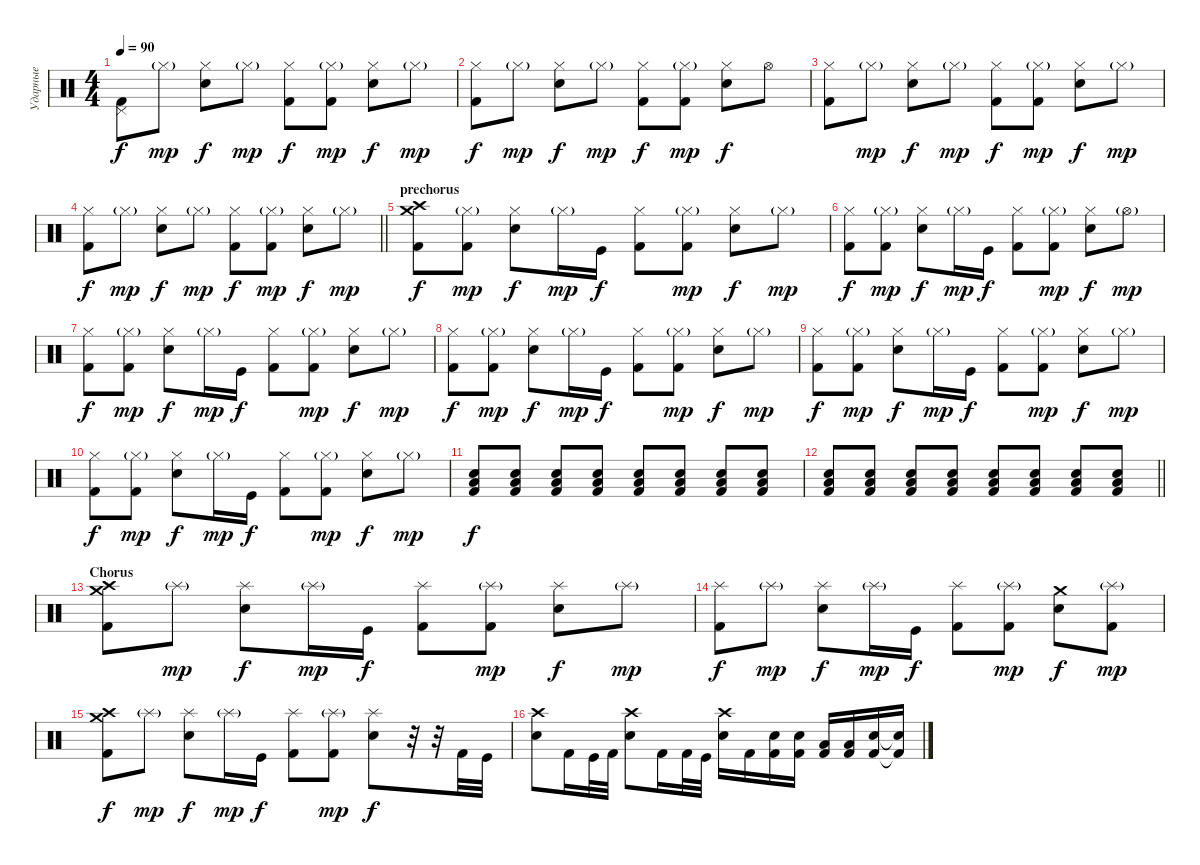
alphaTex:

\track ("Ударные" "Ударные") {instrument percussion}
\staff {score}
\articulation defaults
\ts (4 4)
\tempo 90
\clef neutral
\ks c
("Pedal Hi-Hat (hit)" "Kick (hit) 2").8{dy f} "Hi-Hat (closed)"{g}.8{dy mp} ("Hi-Hat (closed)" "Electric Snare (hit)").8{dy f} "Hi-Hat (closed)"{g}.8{dy mp} ("Hi-Hat (closed)" "Kick (hit) 2").8{dy f} ("Hi-Hat (closed)"{g} "Kick (hit) 2").8{dy mp} ("Hi-Hat (closed)" "Electric Snare (hit)").8{dy f} "Hi-Hat (closed)"{g}.8{dy mp} |
("Hi-Hat (closed)" "Kick (hit) 2").8{dy f} "Hi-Hat (closed)"{g}.8{dy mp} ("Hi-Hat (closed)" "Electric Snare (hit)").8{dy f} "Hi-Hat (closed)"{g}.8{dy mp} ("Hi-Hat (closed)" "Kick (hit) 2").8{dy f} ("Hi-Hat (closed)"{g} "Kick (hit) 2").8{dy mp} ("Hi-Hat (closed)" "Electric Snare (hit)").8{dy f} "Hi-Hat (open)".8 |
("Hi-Hat (closed)" "Kick (hit) 2").8 "Hi-Hat (closed)"{g}.8{dy mp} ("Hi-Hat (closed)" "Electric Snare (hit)").8{dy f} "Hi-Hat (closed)"{g}.8{dy mp} ("Hi-Hat (closed)" "Kick (hit) 2").8{dy f} ("Hi-Hat (closed)"{g} "Kick (hit) 2").8{dy mp} ("Hi-Hat (closed)" "Electric Snare (hit)").8{dy f} "Hi-Hat (closed)"{g}.8{dy mp} |
\barLineRight lightlight
("Hi-Hat (closed)" "Kick (hit) 2").8{dy f} "Hi-Hat (closed)"{g}.8{dy mp} ("Hi-Hat (closed)" "Electric Snare (hit)").8{dy f} "Hi-Hat (closed)"{g}.8{dy mp} ("Hi-Hat (closed)" "Kick (hit) 2").8{dy f} ("Hi-Hat (closed)"{g} "Kick (hit) 2").8{dy mp} ("Hi-Hat (closed)" "Electric Snare (hit)").8{dy f} "Hi-Hat (closed)"{g}.8{dy mp} |
\section ("" "prechorus")
("Crash high (hit)" "Crash medium (hit)" "Kick (hit) 2").8{dy f} ("Hi-Hat (closed)"{g} "Kick (hit) 2").8{dy mp} ("Hi-Hat (closed)" "Electric Snare (hit)").8{dy f} "Hi-Hat (closed)"{g}.16{dy mp} "Kick (hit)".16{dy f} ("Hi-Hat (closed)" "Kick (hit) 2").8 ("Hi-Hat (closed)"{g} "Kick (hit) 2").8{dy mp} ("Hi-Hat (closed)" "Electric Snare (hit)").8{dy f} "Hi-Hat (closed)"{g}.8{dy mp} |
("Hi-Hat (closed)" "Kick (hit) 2").8{dy f} ("Hi-Hat (closed)"{g} "Kick (hit) 2").8{dy mp} ("Hi-Hat (closed)" "Electric Snare (hit)").8{dy f} "Hi-Hat (closed)"{g}.16{dy mp} "Kick (hit)".16{dy f} ("Hi-Hat (closed)" "Kick (hit) 2").8 ("Hi-Hat (closed)"{g} "Kick (hit) 2").8{dy mp} ("Hi-Hat (closed)" "Electric Snare (hit)").8{dy f} "Hi-Hat (open)"{g}.8{dy mp} |
("Hi-Hat (closed)" "Kick (hit) 2").8{dy f} ("Hi-Hat (closed)"{g} "Kick (hit) 2").8{dy mp} ("Hi-Hat (closed)" "Electric Snare (hit)").8{dy f} "Hi-Hat (closed)"{g}.16{dy mp} "Kick (hit)".16{dy f} ("Hi-Hat (closed)" "Kick (hit) 2").8 ("Hi-Hat (closed)"{g} "Kick (hit) 2").8{dy mp} ("Hi-Hat (closed)" "Electric Snare (hit)").8{dy f} "Hi-Hat (closed)"{g}.8{dy mp} |
("Hi-Hat (closed)" "Kick (hit) 2").8{dy f} ("Hi-Hat (closed)"{g} "Kick (hit) 2").8{dy mp} ("Hi-Hat (closed)" "Electric Snare (hit)").8{dy f} "Hi-Hat (closed)"{g}.16{dy mp} "Kick (hit)".16{dy f} ("Hi-Hat (closed)" "Kick (hit) 2").8 ("Hi-Hat (closed)"{g} "Kick (hit) 2").8{dy mp} ("Hi-Hat (closed)" "Electric Snare (hit)").8{dy f} "Hi-Hat (closed)"{g}.8{dy mp} |
("Hi-Hat (closed)" "Kick (hit) 2").8{dy f} ("Hi-Hat (closed)"{g} "Kick (hit) 2").8{dy mp} ("Hi-Hat (closed)" "Electric Snare (hit)").8{dy f} "Hi-Hat (closed)"{g}.16{dy mp} "Kick (hit)".16{dy f} ("Hi-Hat (closed)" "Kick (hit) 2").8 ("Hi-Hat (closed)"{g} "Kick (hit) 2").8{dy mp} ("Hi-Hat (closed)" "Electric Snare (hit)").8{dy f} "Hi-Hat (closed)"{g}.8{dy mp} |
("Hi-Hat (closed)" "Kick (hit) 2").8{dy f} ("Hi-Hat (closed)"{g} "Kick (hit) 2").8{dy mp} ("Hi-Hat (closed)" "Electric Snare (hit)").8{dy f} "Hi-Hat (closed)"{g}.16{dy mp} "Kick (hit)".16{dy f} ("Hi-Hat (closed)" "Kick (hit) 2").8 ("Hi-Hat (closed)"{g} "Kick (hit) 2").8{dy mp} ("Hi-Hat (closed)" "Electric Snare (hit)").8{dy f} "Hi-Hat (closed)"{g}.8{dy mp} |
("Electric Snare (hit)" "Low Floor Tom (hit)" "Kick (hit) 2").8{dy f} ("Electric Snare (hit)" "Low Floor Tom (hit)" "Kick (hit) 2").8 ("Electric Snare (hit)" "Low Floor Tom (hit)" "Kick (hit) 2").8 ("Electric Snare (hit)" "Low Floor Tom (hit)" "Kick (hit) 2").8 ("Electric Snare (hit)" "Low Floor Tom (hit)" "Kick (hit) 2").8 ("Electric Snare (hit)" "Low Floor Tom (hit)" "Kick (hit) 2").8 ("Electric Snare (hit)" "Low Floor Tom (hit)" "Kick (hit) 2").8 ("Electric Snare (hit)" "Low Floor Tom (hit)" "Kick (hit) 2").8 |
\barLineRight lightlight
("Electric Snare (hit)" "Low Floor Tom (hit)" "Kick (hit) 2").8 ("Electric Snare (hit)" "Low Floor Tom (hit)" "Kick (hit) 2").8 ("Electric Snare (hit)" "Low Floor Tom (hit)" "Kick (hit) 2").8 ("Electric Snare (hit)" "Low Floor Tom (hit)" "Kick (hit) 2").8 ("Electric Snare (hit)" "Low Floor Tom (hit)" "Kick (hit) 2").8 ("Electric Snare (hit)" "Low Floor Tom (hit)" "Kick (hit) 2").8 ("Electric Snare (hit)" "Low Floor Tom (hit)" "Kick (hit) 2").8 ("Electric Snare (hit)" "Low Floor Tom (hit)" "Kick (hit) 2").8 |
\section ("" "Chorus")
("Crash medium (hit)" "Crash high (hit)" "Kick (hit) 2").8 "Splash (hit)"{g}.8{dy mp} ("Splash (hit)" "Electric Snare (hit)").8{dy f} "Splash (hit)"{g}.16{dy mp} "Kick (hit)".16{dy f} ("Splash (hit)" "Kick (hit) 2").8 ("Splash (hit)"{g} "Kick (hit) 2").8{dy mp} ("Splash (hit)" "Electric Snare (hit)").8{dy f} "Splash (hit)"{g}.8{dy mp} |
("Splash (hit)" "Kick (hit) 2").8{dy f} "Splash (hit)"{g}.8{dy mp} ("Splash (hit)" "Electric Snare (hit)").8{dy f} "Splash (hit)"{g}.16{dy mp} "Kick (hit)".16{dy f} ("Splash (hit)" "Kick (hit) 2").8 ("Splash (hit)"{g} "Kick (hit) 2").8{dy mp} ("Crash medium (hit)" "Electric Snare (hit)").8{dy f} ("Splash (hit)"{g} "Kick (hit) 2").8{dy mp} |
("Crash medium (hit)" "Crash high (hit)" "Kick (hit) 2").8{dy f} "Splash (hit)"{g}.8{dy mp} ("Splash (hit)" "Electric Snare (hit)").8{dy f} "Splash (hit)"{g}.16{dy mp} "Kick (hit)".16{dy f} ("Splash (hit)" "Kick (hit) 2").8 ("Splash (hit)"{g} "Kick (hit) 2").8{dy mp} ("Splash (hit)" "Electric Snare (hit)").8{dy f} r.32 r.32 "Kick (hit) 2".32 "Kick (hit)".32 |
("Crash high (hit)" "Electric Snare (hit)").8 "Kick (hit) 2".16 "Kick (hit)".32 "Kick (hit) 2".32 ("Crash high (hit)" "Electric Snare (hit)").8 "Kick (hit) 2".16 "Kick (hit) 2".32 "Kick (hit)".32 ("Crash high (hit)" "Electric Snare (hit)").16 "Kick (hit) 2".16 ("Electric Snare (hit)" "Kick (hit) 2").16 ("Electric Snare (hit)" "Kick (hit) 2").16 ("Low Tom (hit)" "Kick (hit) 2").16 ("Low Tom (hit)" "Kick (hit) 2").16 ("Electric Snare (hit)" "Kick (hit) 2").16 ("Electric Snare (hit)"{t} "Kick (hit) 2"{t}).16
